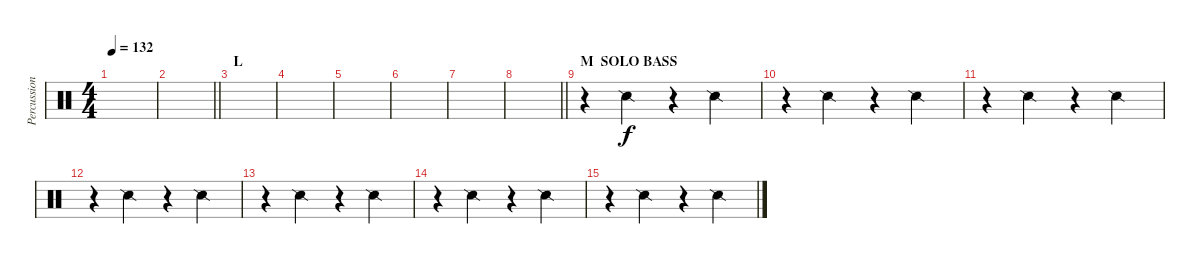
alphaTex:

\track ("Percussions" "Percussion") {instrument percussion}
\staff {score}
\articulation defaults
\ts (4 4)
\tempo 132
\clef neutral
\ks c
|
\barLineRight lightlight
|
\section ("" "L")
|
|
|
|
|
\barLineRight lightlight
|
\section ("" "M  SOLO BASS")
r.4 "Snare (side stick) 2".4 r.4 "Snare (side stick) 2".4 |
r.4 "Snare (side stick) 2".4 r.4 "Snare (side stick) 2".4 |
r.4 "Snare (side stick) 2".4 r.4 "Snare (side stick) 2".4 |
r.4 "Snare (side stick) 2".4 r.4 "Snare (side stick) 2".4 |
r.4 "Snare (side stick) 2".4 r.4 "Snare (side stick) 2".4 |
r.4 "Snare (side stick) 2".4 r.4 "Snare (side stick) 2".4 |
r.4 "Snare (side stick) 2".4 r.4 "Snare (side stick) 2".4
